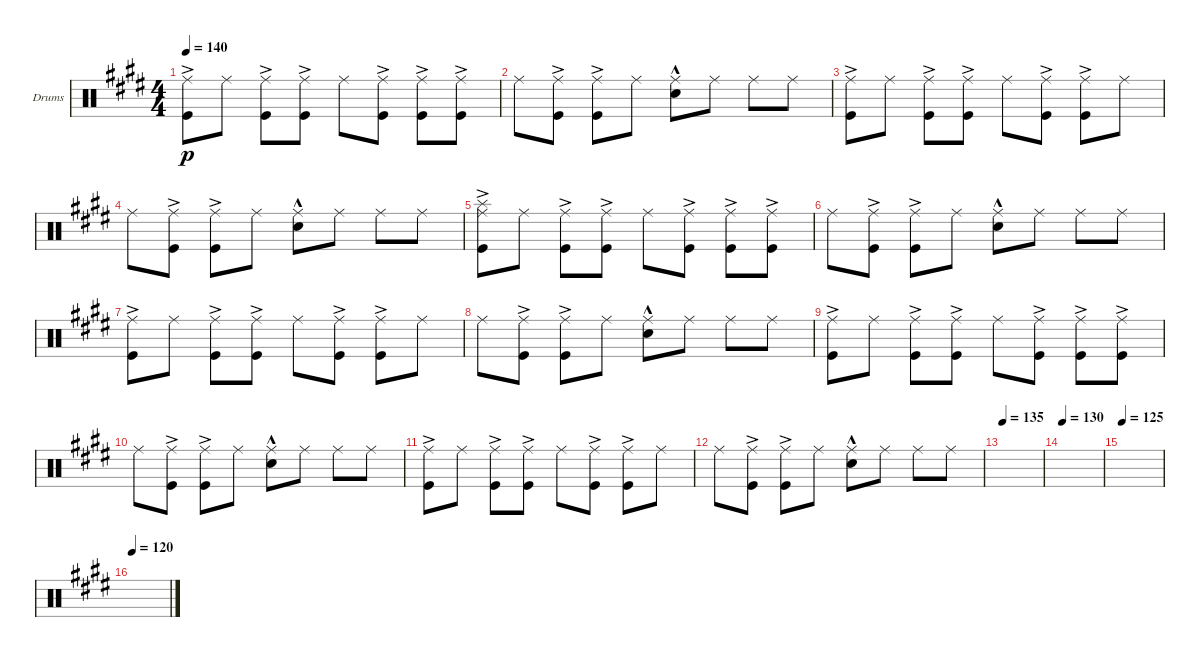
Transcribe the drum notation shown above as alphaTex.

\defaultSystemsLayout 4
\bracketExtendMode groupsimilarinstruments
\firstSystemTrackNameOrientation horizontal
\otherSystemsTrackNameOrientation horizontal
\track ("Drumkit" "Drums") {instrument percussion}
\staff {score}
\articulation defaults
\ts (4 4)
\tempo 140
\clef neutral
\ks e
("Kick (hit)"{ac} "Ride (middle)").8{dy p} "Ride (middle)".8 ("Kick (hit)"{ac} "Ride (middle)").8 ("Kick (hit)"{ac} "Ride (middle)").8 "Ride (middle)".8 ("Kick (hit)"{ac} "Ride (middle)").8 ("Kick (hit)"{ac} "Ride (middle)").8 ("Kick (hit)"{ac} "Ride (middle)").8 |
"Ride (middle)".8 ("Kick (hit)"{ac} "Ride (middle)").8 ("Kick (hit)"{ac} "Ride (middle)").8 "Ride (middle)".8 ("Snare (hit) 2"{hac} "Ride (middle)").8 "Ride (middle)".8 "Ride (middle)".8 "Ride (middle)".8 |
("Kick (hit)"{ac} "Ride (middle)").8 "Ride (middle)".8 ("Kick (hit)"{ac} "Ride (middle)").8 ("Kick (hit)"{ac} "Ride (middle)").8 "Ride (middle)".8 ("Kick (hit)"{ac} "Ride (middle)").8 ("Kick (hit)"{ac} "Ride (middle)").8 "Ride (middle)".8 |
"Ride (middle)".8 ("Kick (hit)"{ac} "Ride (middle)").8 ("Kick (hit)"{ac} "Ride (middle)").8 "Ride (middle)".8 ("Snare (hit) 2"{hac} "Ride (middle)").8 "Ride (middle)".8 "Ride (middle)".8 "Ride (middle)".8 |
("Splash (hit)" "Kick (hit)"{ac} "Ride (middle)").8 "Ride (middle)".8 ("Kick (hit)"{ac} "Ride (middle)").8 ("Kick (hit)"{ac} "Ride (middle)").8 "Ride (middle)".8 ("Kick (hit)"{ac} "Ride (middle)").8 ("Kick (hit)"{ac} "Ride (middle)").8 ("Kick (hit)"{ac} "Ride (middle)").8 |
"Ride (middle)".8 ("Kick (hit)"{ac} "Ride (middle)").8 ("Kick (hit)"{ac} "Ride (middle)").8 "Ride (middle)".8 ("Snare (hit) 2"{hac} "Ride (middle)").8 "Ride (middle)".8 "Ride (middle)".8 "Ride (middle)".8 |
("Kick (hit)"{ac} "Ride (middle)").8 "Ride (middle)".8 ("Kick (hit)"{ac} "Ride (middle)").8 ("Kick (hit)"{ac} "Ride (middle)").8 "Ride (middle)".8 ("Kick (hit)"{ac} "Ride (middle)").8 ("Kick (hit)"{ac} "Ride (middle)").8 "Ride (middle)".8 |
"Ride (middle)".8 ("Kick (hit)"{ac} "Ride (middle)").8 ("Kick (hit)"{ac} "Ride (middle)").8 "Ride (middle)".8 ("Snare (hit) 2"{hac} "Ride (middle)").8 "Ride (middle)".8 "Ride (middle)".8 "Ride (middle)".8 |
("Kick (hit)"{ac} "Ride (middle)").8 "Ride (middle)".8 ("Kick (hit)"{ac} "Ride (middle)").8 ("Kick (hit)"{ac} "Ride (middle)").8 "Ride (middle)".8 ("Kick (hit)"{ac} "Ride (middle)").8 ("Kick (hit)"{ac} "Ride (middle)").8 ("Kick (hit)"{ac} "Ride (middle)").8 |
"Ride (middle)".8 ("Kick (hit)"{ac} "Ride (middle)").8 ("Kick (hit)"{ac} "Ride (middle)").8 "Ride (middle)".8 ("Snare (hit) 2"{hac} "Ride (middle)").8 "Ride (middle)".8 "Ride (middle)".8 "Ride (middle)".8 |
("Kick (hit)"{ac} "Ride (middle)").8 "Ride (middle)".8 ("Kick (hit)"{ac} "Ride (middle)").8 ("Kick (hit)"{ac} "Ride (middle)").8 "Ride (middle)".8 ("Kick (hit)"{ac} "Ride (middle)").8 ("Kick (hit)"{ac} "Ride (middle)").8 "Ride (middle)".8 |
"Ride (middle)".8 ("Kick (hit)"{ac} "Ride (middle)").8 ("Kick (hit)"{ac} "Ride (middle)").8 "Ride (middle)".8 ("Snare (hit) 2"{hac} "Ride (middle)").8 "Ride (middle)".8 "Ride (middle)".8 "Ride (middle)".8 |
\tempo 135
|
\tempo 130
|
\tempo 125
|
\tempo 120
